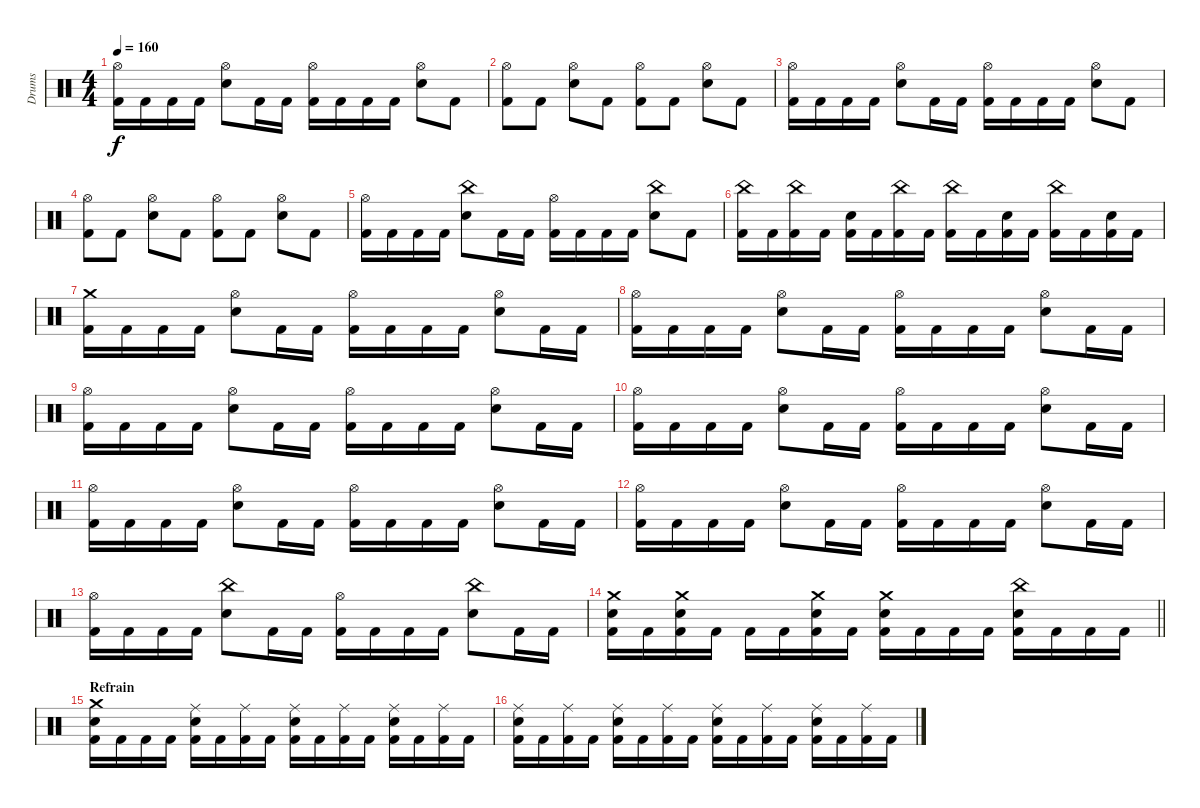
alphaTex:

\track ("Drums" "Drums") {instrument percussion}
\staff {score}
\articulation defaults
\ts (4 4)
\tempo 160
\clef neutral
\ks c
("Hi-Hat (open)" "Kick (hit) 2").16{dy f} "Kick (hit) 2".16 "Kick (hit) 2".16 "Kick (hit) 2".16 ("Hi-Hat (open)" "Snare (hit) 2").8 "Kick (hit) 2".16 "Kick (hit) 2".16 ("Hi-Hat (open)" "Kick (hit) 2").16 "Kick (hit) 2".16 "Kick (hit) 2".16 "Kick (hit) 2".16 ("Hi-Hat (open)" "Snare (hit) 2").8 "Kick (hit) 2".8 |
("Hi-Hat (open)" "Kick (hit) 2").8 "Kick (hit) 2".8 ("Hi-Hat (open)" "Snare (hit) 2").8 "Kick (hit) 2".8 ("Hi-Hat (open)" "Kick (hit) 2").8 "Kick (hit) 2".8 ("Hi-Hat (open)" "Snare (hit) 2").8 "Kick (hit) 2".8 |
("Hi-Hat (open)" "Kick (hit) 2").16 "Kick (hit) 2".16 "Kick (hit) 2".16 "Kick (hit) 2".16 ("Hi-Hat (open)" "Snare (hit) 2").8 "Kick (hit) 2".16 "Kick (hit) 2".16 ("Hi-Hat (open)" "Kick (hit) 2").16 "Kick (hit) 2".16 "Kick (hit) 2".16 "Kick (hit) 2".16 ("Hi-Hat (open)" "Snare (hit) 2").8 "Kick (hit) 2".8 |
("Hi-Hat (open)" "Kick (hit) 2").8 "Kick (hit) 2".8 ("Hi-Hat (open)" "Snare (hit) 2").8 "Kick (hit) 2".8 ("Hi-Hat (open)" "Kick (hit) 2").8 "Kick (hit) 2".8 ("Hi-Hat (open)" "Snare (hit) 2").8 "Kick (hit) 2".8 |
("Hi-Hat (open)" "Kick (hit) 2").16 "Kick (hit) 2".16 "Kick (hit) 2".16 "Kick (hit) 2".16 ("China (hit)" "Snare (hit) 2").8 "Kick (hit) 2".16 "Kick (hit) 2".16 ("Hi-Hat (open)" "Kick (hit) 2").16 "Kick (hit) 2".16 "Kick (hit) 2".16 "Kick (hit) 2".16 ("China (hit)" "Snare (hit) 2").8 "Kick (hit) 2".8 |
("China (hit)" "Kick (hit) 2").16 "Kick (hit) 2".16 ("China (hit)" "Kick (hit) 2").16 "Kick (hit) 2".16 ("Snare (hit) 2" "Kick (hit) 2").16 "Kick (hit) 2".16 ("China (hit)" "Kick (hit) 2").16 "Kick (hit) 2".16 ("China (hit)" "Kick (hit) 2").16 "Kick (hit) 2".16 ("Snare (hit) 2" "Kick (hit) 2").16 "Kick (hit) 2".16 ("China (hit)" "Kick (hit) 2").16 "Kick (hit) 2".16 ("Snare (hit) 2" "Kick (hit) 2").16 "Kick (hit) 2".16 |
("Crash medium (hit)" "Kick (hit) 2").16 "Kick (hit) 2".16 "Kick (hit) 2".16 "Kick (hit) 2".16 ("Hi-Hat (open)" "Snare (hit) 2").8 "Kick (hit) 2".16 "Kick (hit) 2".16 ("Hi-Hat (open)" "Kick (hit) 2").16 "Kick (hit) 2".16 "Kick (hit) 2".16 "Kick (hit) 2".16 ("Hi-Hat (open)" "Snare (hit) 2").8 "Kick (hit) 2".16 "Kick (hit) 2".16 |
("Hi-Hat (open)" "Kick (hit) 2").16 "Kick (hit) 2".16 "Kick (hit) 2".16 "Kick (hit) 2".16 ("Hi-Hat (open)" "Snare (hit) 2").8 "Kick (hit) 2".16 "Kick (hit) 2".16 ("Hi-Hat (open)" "Kick (hit) 2").16 "Kick (hit) 2".16 "Kick (hit) 2".16 "Kick (hit) 2".16 ("Hi-Hat (open)" "Snare (hit) 2").8 "Kick (hit) 2".16 "Kick (hit) 2".16 |
("Hi-Hat (open)" "Kick (hit) 2").16 "Kick (hit) 2".16 "Kick (hit) 2".16 "Kick (hit) 2".16 ("Hi-Hat (open)" "Snare (hit) 2").8 "Kick (hit) 2".16 "Kick (hit) 2".16 ("Hi-Hat (open)" "Kick (hit) 2").16 "Kick (hit) 2".16 "Kick (hit) 2".16 "Kick (hit) 2".16 ("Hi-Hat (open)" "Snare (hit) 2").8 "Kick (hit) 2".16 "Kick (hit) 2".16 |
("Hi-Hat (open)" "Kick (hit) 2").16 "Kick (hit) 2".16 "Kick (hit) 2".16 "Kick (hit) 2".16 ("Hi-Hat (open)" "Snare (hit) 2").8 "Kick (hit) 2".16 "Kick (hit) 2".16 ("Hi-Hat (open)" "Kick (hit) 2").16 "Kick (hit) 2".16 "Kick (hit) 2".16 "Kick (hit) 2".16 ("Hi-Hat (open)" "Snare (hit) 2").8 "Kick (hit) 2".16 "Kick (hit) 2".16 |
("Hi-Hat (open)" "Kick (hit) 2").16 "Kick (hit) 2".16 "Kick (hit) 2".16 "Kick (hit) 2".16 ("Hi-Hat (open)" "Snare (hit) 2").8 "Kick (hit) 2".16 "Kick (hit) 2".16 ("Hi-Hat (open)" "Kick (hit) 2").16 "Kick (hit) 2".16 "Kick (hit) 2".16 "Kick (hit) 2".16 ("Hi-Hat (open)" "Snare (hit) 2").8 "Kick (hit) 2".16 "Kick (hit) 2".16 |
("Hi-Hat (open)" "Kick (hit) 2").16 "Kick (hit) 2".16 "Kick (hit) 2".16 "Kick (hit) 2".16 ("Hi-Hat (open)" "Snare (hit) 2").8 "Kick (hit) 2".16 "Kick (hit) 2".16 ("Hi-Hat (open)" "Kick (hit) 2").16 "Kick (hit) 2".16 "Kick (hit) 2".16 "Kick (hit) 2".16 ("Hi-Hat (open)" "Snare (hit) 2").8 "Kick (hit) 2".16 "Kick (hit) 2".16 |
("Hi-Hat (open)" "Kick (hit) 2").16 "Kick (hit) 2".16 "Kick (hit) 2".16 "Kick (hit) 2".16 ("China (hit)" "Snare (hit) 2").8 "Kick (hit) 2".16 "Kick (hit) 2".16 ("Hi-Hat (open)" "Kick (hit) 2").16 "Kick (hit) 2".16 "Kick (hit) 2".16 "Kick (hit) 2".16 ("China (hit)" "Snare (hit) 2").8 "Kick (hit) 2".16 "Kick (hit) 2".16 |
\barLineRight lightlight
("Crash medium (hit)" "Snare (hit) 2" "Kick (hit) 2").16 "Kick (hit) 2".16 ("Crash medium (hit)" "Snare (hit) 2" "Kick (hit) 2").16 "Kick (hit) 2".16 "Kick (hit) 2".16 "Kick (hit) 2".16 ("Crash medium (hit)" "Snare (hit) 2" "Kick (hit) 2").16 "Kick (hit) 2".16 ("Crash medium (hit)" "Snare (hit) 2" "Kick (hit) 2").16 "Kick (hit) 2".16 "Kick (hit) 2".16 "Kick (hit) 2".16 ("China (hit)" "Snare (hit) 2" "Kick (hit) 2").16 "Kick (hit) 2".16 "Kick (hit) 2".16 "Kick (hit) 2".16 |
\section ("" "Refrain")
("Crash medium (hit)" "Snare (hit) 2" "Kick (hit) 2").16 "Kick (hit) 2".16 "Kick (hit) 2".16 "Kick (hit) 2".16 ("Ride (middle)" "Snare (hit) 2" "Kick (hit) 2").16 "Kick (hit) 2".16 ("Ride (middle)" "Kick (hit) 2").16 "Kick (hit) 2".16 ("Ride (middle)" "Snare (hit) 2" "Kick (hit) 2").16 "Kick (hit) 2".16 ("Ride (middle)" "Kick (hit) 2").16 "Kick (hit) 2".16 ("Ride (middle)" "Snare (hit) 2" "Kick (hit) 2").16 "Kick (hit) 2".16 ("Ride (middle)" "Kick (hit) 2").16 "Kick (hit) 2".16 |
("Ride (middle)" "Snare (hit) 2" "Kick (hit) 2").16 "Kick (hit) 2".16 ("Ride (middle)" "Kick (hit) 2").16 "Kick (hit) 2".16 ("Ride (middle)" "Snare (hit) 2" "Kick (hit) 2").16 "Kick (hit) 2".16 ("Ride (middle)" "Kick (hit) 2").16 "Kick (hit) 2".16 ("Ride (middle)" "Snare (hit) 2" "Kick (hit) 2").16 "Kick (hit) 2".16 ("Ride (middle)" "Kick (hit) 2").16 "Kick (hit) 2".16 ("Ride (middle)" "Snare (hit) 2" "Kick (hit) 2").16 "Kick (hit) 2".16 ("Ride (middle)" "Kick (hit) 2").16 "Kick (hit) 2".16
